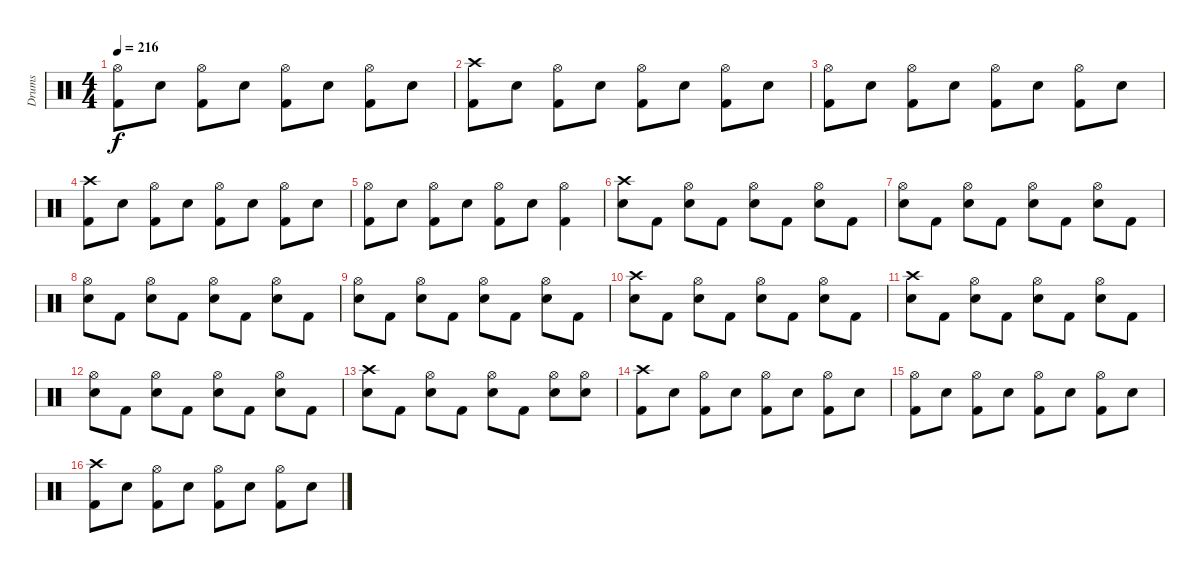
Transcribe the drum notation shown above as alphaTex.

\track ("Drums" "Drums") {instrument percussion}
\staff {score}
\articulation defaults
\ts (4 4)
\tempo 216
\clef neutral
\ks c
("Hi-Hat (open)" "Kick (hit) 2").8{dy f} "Electric Snare (hit)".8 ("Hi-Hat (open)" "Kick (hit) 2").8 "Electric Snare (hit)".8 ("Hi-Hat (open)" "Kick (hit) 2").8 "Electric Snare (hit)".8 ("Hi-Hat (open)" "Kick (hit) 2").8 "Electric Snare (hit)".8 |
("Crash high (hit)" "Kick (hit) 2").8 "Electric Snare (hit)".8 ("Hi-Hat (open)" "Kick (hit) 2").8 "Electric Snare (hit)".8 ("Hi-Hat (open)" "Kick (hit) 2").8 "Electric Snare (hit)".8 ("Hi-Hat (open)" "Kick (hit) 2").8 "Electric Snare (hit)".8 |
("Hi-Hat (open)" "Kick (hit) 2").8 "Electric Snare (hit)".8 ("Hi-Hat (open)" "Kick (hit) 2").8 "Electric Snare (hit)".8 ("Hi-Hat (open)" "Kick (hit) 2").8 "Electric Snare (hit)".8 ("Hi-Hat (open)" "Kick (hit) 2").8 "Electric Snare (hit)".8 |
("Crash high (hit)" "Kick (hit) 2").8 "Electric Snare (hit)".8 ("Hi-Hat (open)" "Kick (hit) 2").8 "Electric Snare (hit)".8 ("Hi-Hat (open)" "Kick (hit) 2").8 "Electric Snare (hit)".8 ("Hi-Hat (open)" "Kick (hit) 2").8 "Electric Snare (hit)".8 |
("Hi-Hat (open)" "Kick (hit) 2").8 "Electric Snare (hit)".8 ("Hi-Hat (open)" "Kick (hit) 2").8 "Electric Snare (hit)".8 ("Hi-Hat (open)" "Kick (hit) 2").8 "Electric Snare (hit)".8 ("Hi-Hat (open)" "Kick (hit) 2").4 |
("Crash high (hit)" "Electric Snare (hit)").8 "Kick (hit) 2".8 ("Hi-Hat (open)" "Electric Snare (hit)").8 "Kick (hit) 2".8 ("Hi-Hat (open)" "Electric Snare (hit)").8 "Kick (hit) 2".8 ("Hi-Hat (open)" "Electric Snare (hit)").8 "Kick (hit) 2".8 |
("Hi-Hat (open)" "Electric Snare (hit)").8 "Kick (hit) 2".8 ("Hi-Hat (open)" "Electric Snare (hit)").8 "Kick (hit) 2".8 ("Hi-Hat (open)" "Electric Snare (hit)").8 "Kick (hit) 2".8 ("Hi-Hat (open)" "Electric Snare (hit)").8 "Kick (hit) 2".8 |
("Hi-Hat (open)" "Electric Snare (hit)").8 "Kick (hit) 2".8 ("Hi-Hat (open)" "Electric Snare (hit)").8 "Kick (hit) 2".8 ("Hi-Hat (open)" "Electric Snare (hit)").8 "Kick (hit) 2".8 ("Hi-Hat (open)" "Electric Snare (hit)").8 "Kick (hit) 2".8 |
("Hi-Hat (open)" "Electric Snare (hit)").8 "Kick (hit) 2".8 ("Hi-Hat (open)" "Electric Snare (hit)").8 "Kick (hit) 2".8 ("Hi-Hat (open)" "Electric Snare (hit)").8 "Kick (hit) 2".8 ("Hi-Hat (open)" "Electric Snare (hit)").8 "Kick (hit) 2".8 |
("Crash high (hit)" "Electric Snare (hit)").8 "Kick (hit) 2".8 ("Hi-Hat (open)" "Electric Snare (hit)").8 "Kick (hit) 2".8 ("Hi-Hat (open)" "Electric Snare (hit)").8 "Kick (hit) 2".8 ("Hi-Hat (open)" "Electric Snare (hit)").8 "Kick (hit) 2".8 |
("Crash high (hit)" "Electric Snare (hit)").8 "Kick (hit) 2".8 ("Hi-Hat (open)" "Electric Snare (hit)").8 "Kick (hit) 2".8 ("Hi-Hat (open)" "Electric Snare (hit)").8 "Kick (hit) 2".8 ("Hi-Hat (open)" "Electric Snare (hit)").8 "Kick (hit) 2".8 |
("Hi-Hat (open)" "Electric Snare (hit)").8 "Kick (hit) 2".8 ("Hi-Hat (open)" "Electric Snare (hit)").8 "Kick (hit) 2".8 ("Hi-Hat (open)" "Electric Snare (hit)").8 "Kick (hit) 2".8 ("Hi-Hat (open)" "Electric Snare (hit)").8 "Kick (hit) 2".8 |
("Crash high (hit)" "Electric Snare (hit)").8 "Kick (hit) 2".8 ("Hi-Hat (open)" "Electric Snare (hit)").8 "Kick (hit) 2".8 ("Hi-Hat (open)" "Electric Snare (hit)").8 "Kick (hit) 2".8 ("Hi-Hat (open)" "Electric Snare (hit)").8 ("Hi-Hat (open)" "Electric Snare (hit)").8 |
("Crash high (hit)" "Kick (hit) 2").8 "Electric Snare (hit)".8 ("Hi-Hat (open)" "Kick (hit) 2").8 "Electric Snare (hit)".8 ("Hi-Hat (open)" "Kick (hit) 2").8 "Electric Snare (hit)".8 ("Hi-Hat (open)" "Kick (hit) 2").8 "Electric Snare (hit)".8 |
("Hi-Hat (open)" "Kick (hit) 2").8 "Electric Snare (hit)".8 ("Hi-Hat (open)" "Kick (hit) 2").8 "Electric Snare (hit)".8 ("Hi-Hat (open)" "Kick (hit) 2").8 "Electric Snare (hit)".8 ("Hi-Hat (open)" "Kick (hit) 2").8 "Electric Snare (hit)".8 |
("Crash high (hit)" "Kick (hit) 2").8 "Electric Snare (hit)".8 ("Hi-Hat (open)" "Kick (hit) 2").8 "Electric Snare (hit)".8 ("Hi-Hat (open)" "Kick (hit) 2").8 "Electric Snare (hit)".8 ("Hi-Hat (open)" "Kick (hit) 2").8 "Electric Snare (hit)".8
